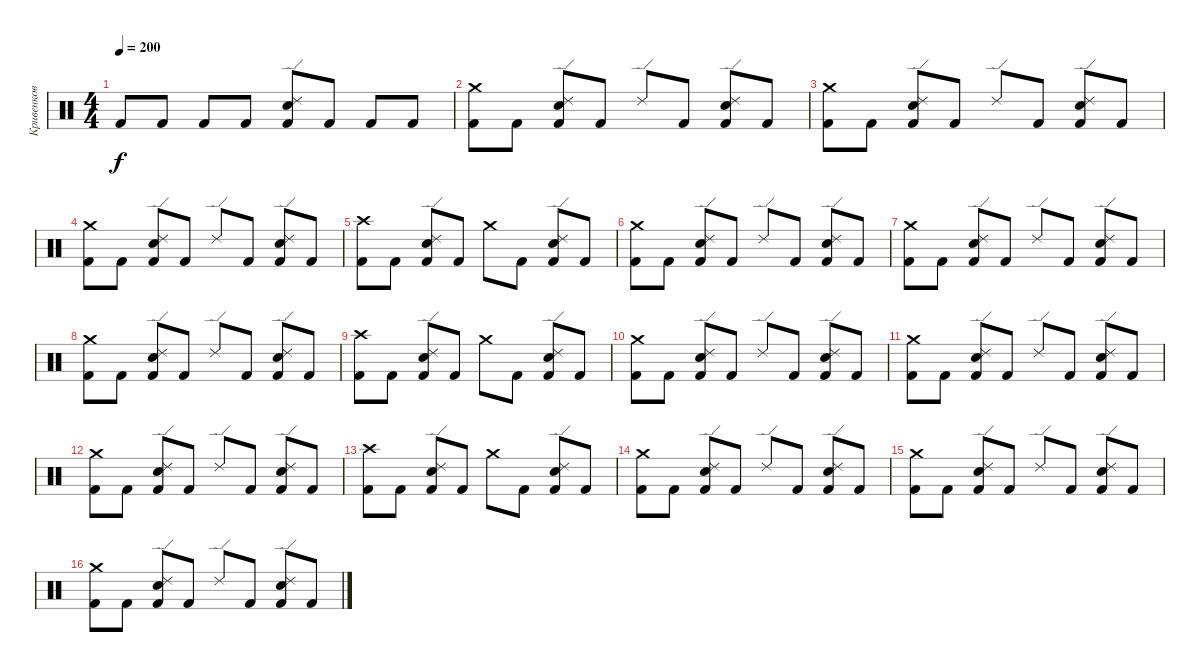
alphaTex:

\track ("Кривенков" "Кривенков") {instrument percussion}
\staff {score}
\articulation defaults
\ts (4 4)
\tempo 200
\clef neutral
\ks c "Kick (hit) 2".8{dy f} "Kick (hit) 2".8 "Kick (hit) 2".8 "Kick (hit) 2".8
("Ride (edge) 2" "Electric Snare (hit)" "Kick (hit) 2").8 "Kick (hit) 2".8 "Kick (hit) 2".8 "Kick (hit) 2".8 |
("Crash medium (hit)" "Kick (hit) 2").8 "Kick (hit) 2".8 ("Ride (edge) 2" "Electric Snare (hit)" "Kick (hit) 2").8 "Kick (hit) 2".8 "Ride (edge) 2".8 "Kick (hit) 2".8 ("Ride (edge) 2" "Electric Snare (hit)" "Kick (hit) 2").8 "Kick (hit) 2".8 |
("Crash medium (hit)" "Kick (hit) 2").8 "Kick (hit) 2".8 ("Ride (edge) 2" "Electric Snare (hit)" "Kick (hit) 2").8 "Kick (hit) 2".8 "Ride (edge) 2".8 "Kick (hit) 2".8 ("Ride (edge) 2" "Electric Snare (hit)" "Kick (hit) 2").8 "Kick (hit) 2".8 |
("Crash medium (hit)" "Kick (hit) 2").8 "Kick (hit) 2".8 ("Ride (edge) 2" "Electric Snare (hit)" "Kick (hit) 2").8 "Kick (hit) 2".8 "Ride (edge) 2".8 "Kick (hit) 2".8 ("Ride (edge) 2" "Electric Snare (hit)" "Kick (hit) 2").8 "Kick (hit) 2".8 |
("Crash high (hit)" "Kick (hit) 2").8 "Kick (hit) 2".8 ("Ride (edge) 2" "Electric Snare (hit)" "Kick (hit) 2").8 "Kick (hit) 2".8 "Crash medium (hit)".8 "Kick (hit) 2".8 ("Ride (edge) 2" "Electric Snare (hit)" "Kick (hit) 2").8 "Kick (hit) 2".8 |
("Crash medium (hit)" "Kick (hit) 2").8 "Kick (hit) 2".8 ("Ride (edge) 2" "Electric Snare (hit)" "Kick (hit) 2").8 "Kick (hit) 2".8 "Ride (edge) 2".8 "Kick (hit) 2".8 ("Ride (edge) 2" "Electric Snare (hit)" "Kick (hit) 2").8 "Kick (hit) 2".8 |
("Crash medium (hit)" "Kick (hit) 2").8 "Kick (hit) 2".8 ("Ride (edge) 2" "Electric Snare (hit)" "Kick (hit) 2").8 "Kick (hit) 2".8 "Ride (edge) 2".8 "Kick (hit) 2".8 ("Ride (edge) 2" "Electric Snare (hit)" "Kick (hit) 2").8 "Kick (hit) 2".8 |
("Crash medium (hit)" "Kick (hit) 2").8 "Kick (hit) 2".8 ("Ride (edge) 2" "Electric Snare (hit)" "Kick (hit) 2").8 "Kick (hit) 2".8 "Ride (edge) 2".8 "Kick (hit) 2".8 ("Ride (edge) 2" "Electric Snare (hit)" "Kick (hit) 2").8 "Kick (hit) 2".8 |
("Crash high (hit)" "Kick (hit) 2").8 "Kick (hit) 2".8 ("Ride (edge) 2" "Electric Snare (hit)" "Kick (hit) 2").8 "Kick (hit) 2".8 "Crash medium (hit)".8 "Kick (hit) 2".8 ("Ride (edge) 2" "Electric Snare (hit)" "Kick (hit) 2").8 "Kick (hit) 2".8 |
("Crash medium (hit)" "Kick (hit) 2").8 "Kick (hit) 2".8 ("Ride (edge) 2" "Electric Snare (hit)" "Kick (hit) 2").8 "Kick (hit) 2".8 "Ride (edge) 2".8 "Kick (hit) 2".8 ("Ride (edge) 2" "Electric Snare (hit)" "Kick (hit) 2").8 "Kick (hit) 2".8 |
("Crash medium (hit)" "Kick (hit) 2").8 "Kick (hit) 2".8 ("Ride (edge) 2" "Electric Snare (hit)" "Kick (hit) 2").8 "Kick (hit) 2".8 "Ride (edge) 2".8 "Kick (hit) 2".8 ("Ride (edge) 2" "Electric Snare (hit)" "Kick (hit) 2").8 "Kick (hit) 2".8 |
("Crash medium (hit)" "Kick (hit) 2").8 "Kick (hit) 2".8 ("Ride (edge) 2" "Electric Snare (hit)" "Kick (hit) 2").8 "Kick (hit) 2".8 "Ride (edge) 2".8 "Kick (hit) 2".8 ("Ride (edge) 2" "Electric Snare (hit)" "Kick (hit) 2").8 "Kick (hit) 2".8 |
("Crash high (hit)" "Kick (hit) 2").8 "Kick (hit) 2".8 ("Ride (edge) 2" "Electric Snare (hit)" "Kick (hit) 2").8 "Kick (hit) 2".8 "Crash medium (hit)".8 "Kick (hit) 2".8 ("Ride (edge) 2" "Electric Snare (hit)" "Kick (hit) 2").8 "Kick (hit) 2".8 |
("Crash medium (hit)" "Kick (hit) 2").8 "Kick (hit) 2".8 ("Ride (edge) 2" "Electric Snare (hit)" "Kick (hit) 2").8 "Kick (hit) 2".8 "Ride (edge) 2".8 "Kick (hit) 2".8 ("Ride (edge) 2" "Electric Snare (hit)" "Kick (hit) 2").8 "Kick (hit) 2".8 |
("Crash medium (hit)" "Kick (hit) 2").8 "Kick (hit) 2".8 ("Ride (edge) 2" "Electric Snare (hit)" "Kick (hit) 2").8 "Kick (hit) 2".8 "Ride (edge) 2".8 "Kick (hit) 2".8 ("Ride (edge) 2" "Electric Snare (hit)" "Kick (hit) 2").8 "Kick (hit) 2".8 |
("Crash medium (hit)" "Kick (hit) 2").8 "Kick (hit) 2".8 ("Ride (edge) 2" "Electric Snare (hit)" "Kick (hit) 2").8 "Kick (hit) 2".8 "Ride (edge) 2".8 "Kick (hit) 2".8 ("Ride (edge) 2" "Electric Snare (hit)" "Kick (hit) 2").8 "Kick (hit) 2".8
